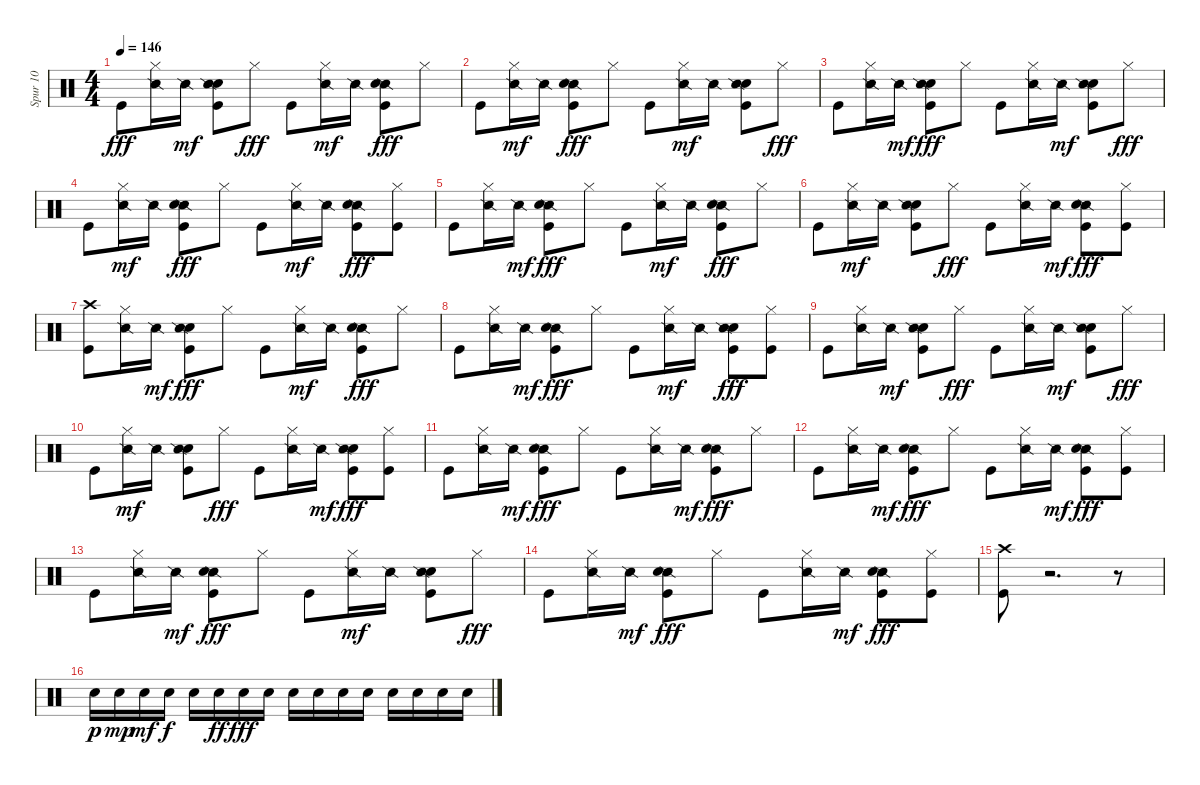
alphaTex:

\track ("Spur 10" "Spur 10") {instrument percussion}
\staff {score}
\articulation defaults
\ts (4 4)
\tempo 146
\clef neutral
\ks c "Kick (hit)".8{dy fff}
("Snare (side stick) 2" "Hi-Hat (closed)").16 "Snare (side stick) 2".16{dy mf} ("Kick (hit)" "Hand Clap (hit)" "Snare (side stick) 2").8 "Hi-Hat (closed)".8{dy fff} "Kick (hit)".8 ("Hi-Hat (closed)" "Snare (side stick) 2").16{dy mf} "Snare (side stick) 2".16 ("Snare (side stick) 2" "Hand Clap (hit)" "Kick (hit)").8{dy fff} "Hi-Hat (closed)".8 |
"Kick (hit)".8 ("Hi-Hat (closed)" "Snare (side stick) 2").16{dy mf} "Snare (side stick) 2".16 ("Kick (hit)" "Snare (side stick) 2" "Hand Clap (hit)").8{dy fff} "Hi-Hat (closed)".8 "Kick (hit)".8 ("Hi-Hat (closed)" "Snare (side stick) 2").16{dy mf} "Snare (side stick) 2".16 ("Kick (hit)" "Hand Clap (hit)" "Snare (side stick) 2").8 "Hi-Hat (closed)".8{dy fff} |
"Kick (hit)".8 ("Snare (side stick) 2" "Hi-Hat (closed)").16 "Snare (side stick) 2".16{dy mf} ("Hand Clap (hit)" "Snare (side stick) 2" "Kick (hit)").8{dy fff} "Hi-Hat (closed)".8 "Kick (hit)".8 ("Snare (side stick) 2" "Hi-Hat (closed)").16 "Snare (side stick) 2".16{dy mf} ("Hand Clap (hit)" "Kick (hit)" "Snare (side stick) 2").8 "Hi-Hat (closed)".8{dy fff} |
"Kick (hit)".8 ("Hi-Hat (closed)" "Snare (side stick) 2").16{dy mf} "Snare (side stick) 2".16 ("Snare (side stick) 2" "Hand Clap (hit)" "Kick (hit)").8{dy fff} "Hi-Hat (closed)".8 "Kick (hit)".8 ("Hi-Hat (closed)" "Snare (side stick) 2").16{dy mf} "Snare (side stick) 2".16 ("Kick (hit)" "Snare (side stick) 2" "Hand Clap (hit)").8{dy fff} ("Kick (hit)" "Hi-Hat (closed)").8 |
"Kick (hit)".8 ("Snare (side stick) 2" "Hi-Hat (closed)").16 "Snare (side stick) 2".16{dy mf} ("Snare (side stick) 2" "Kick (hit)" "Hand Clap (hit)").8{dy fff} "Hi-Hat (closed)".8 "Kick (hit)".8 ("Hi-Hat (closed)" "Snare (side stick) 2").16{dy mf} "Snare (side stick) 2".16 ("Snare (side stick) 2" "Kick (hit)" "Hand Clap (hit)").8{dy fff} "Hi-Hat (closed)".8 |
"Kick (hit)".8 ("Hi-Hat (closed)" "Snare (side stick) 2").16{dy mf} "Snare (side stick) 2".16 ("Hand Clap (hit)" "Kick (hit)" "Snare (side stick) 2").8 "Hi-Hat (closed)".8{dy fff} "Kick (hit)".8 ("Snare (side stick) 2" "Hi-Hat (closed)").16 "Snare (side stick) 2".16{dy mf} ("Snare (side stick) 2" "Kick (hit)" "Hand Clap (hit)").8{dy fff} ("Kick (hit)" "Hi-Hat (closed)").8 |
("Kick (hit)" "Crash high (hit)").8 ("Snare (side stick) 2" "Hi-Hat (closed)").16 "Snare (side stick) 2".16{dy mf} ("Hand Clap (hit)" "Snare (side stick) 2" "Kick (hit)").8{dy fff} "Hi-Hat (closed)".8 "Kick (hit)".8 ("Hi-Hat (closed)" "Snare (side stick) 2").16{dy mf} "Snare (side stick) 2".16 ("Snare (side stick) 2" "Kick (hit)" "Hand Clap (hit)").8{dy fff} "Hi-Hat (closed)".8 |
"Kick (hit)".8 ("Snare (side stick) 2" "Hi-Hat (closed)").16 "Snare (side stick) 2".16{dy mf} ("Kick (hit)" "Snare (side stick) 2" "Hand Clap (hit)").8{dy fff} "Hi-Hat (closed)".8 "Kick (hit)".8 ("Hi-Hat (closed)" "Snare (side stick) 2").16{dy mf} "Snare (side stick) 2".16 ("Hand Clap (hit)" "Snare (side stick) 2" "Kick (hit)").8{dy fff} ("Kick (hit)" "Hi-Hat (closed)").8 |
"Kick (hit)".8 ("Snare (side stick) 2" "Hi-Hat (closed)").16 "Snare (side stick) 2".16{dy mf} ("Hand Clap (hit)" "Kick (hit)" "Snare (side stick) 2").8 "Hi-Hat (closed)".8{dy fff} "Kick (hit)".8 ("Snare (side stick) 2" "Hi-Hat (closed)").16 "Snare (side stick) 2".16{dy mf} ("Hand Clap (hit)" "Kick (hit)" "Snare (side stick) 2").8 "Hi-Hat (closed)".8{dy fff} |
"Kick (hit)".8 ("Hi-Hat (closed)" "Snare (side stick) 2").16{dy mf} "Snare (side stick) 2".16 ("Kick (hit)" "Hand Clap (hit)" "Snare (side stick) 2").8 "Hi-Hat (closed)".8{dy fff} "Kick (hit)".8 ("Snare (side stick) 2" "Hi-Hat (closed)").16 "Snare (side stick) 2".16{dy mf} ("Hand Clap (hit)" "Snare (side stick) 2" "Kick (hit)").8{dy fff} ("Kick (hit)" "Hi-Hat (closed)").8 |
"Kick (hit)".8 ("Snare (side stick) 2" "Hi-Hat (closed)").16 "Snare (side stick) 2".16{dy mf} ("Snare (side stick) 2" "Hand Clap (hit)" "Kick (hit)").8{dy fff} "Hi-Hat (closed)".8 "Kick (hit)".8 ("Snare (side stick) 2" "Hi-Hat (closed)").16 "Snare (side stick) 2".16{dy mf} ("Snare (side stick) 2" "Kick (hit)" "Hand Clap (hit)").8{dy fff} "Hi-Hat (closed)".8 |
"Kick (hit)".8 ("Snare (side stick) 2" "Hi-Hat (closed)").16 "Snare (side stick) 2".16{dy mf} ("Snare (side stick) 2" "Kick (hit)" "Hand Clap (hit)").8{dy fff} "Hi-Hat (closed)".8 "Kick (hit)".8 ("Snare (side stick) 2" "Hi-Hat (closed)").16 "Snare (side stick) 2".16{dy mf} ("Snare (side stick) 2" "Hand Clap (hit)" "Kick (hit)").8{dy fff} ("Hi-Hat (closed)" "Kick (hit)").8 |
"Kick (hit)".8 ("Snare (side stick) 2" "Hi-Hat (closed)").16 "Snare (side stick) 2".16{dy mf} ("Snare (side stick) 2" "Kick (hit)" "Hand Clap (hit)").8{dy fff} "Hi-Hat (closed)".8 "Kick (hit)".8 ("Hi-Hat (closed)" "Snare (side stick) 2").16{dy mf} "Snare (side stick) 2".16 ("Hand Clap (hit)" "Kick (hit)" "Snare (side stick) 2").8 "Hi-Hat (closed)".8{dy fff} |
"Kick (hit)".8 ("Snare (side stick) 2" "Hi-Hat (closed)").16 "Snare (side stick) 2".16{dy mf} ("Snare (side stick) 2" "Kick (hit)" "Hand Clap (hit)").8{dy fff} "Hi-Hat (closed)".8 "Kick (hit)".8 ("Snare (side stick) 2" "Hi-Hat (closed)").16 "Snare (side stick) 2".16{dy mf} ("Snare (side stick) 2" "Kick (hit)" "Hand Clap (hit)").8{dy fff} ("Hi-Hat (closed)" "Kick (hit)").8 |
("Crash high (hit)" "Kick (hit)").8 r.2{d} r.8 |
"Snare (hit) 2".16{dy p} "Snare (hit) 2".16{dy mp} "Snare (hit) 2".16{dy mf} "Snare (hit) 2".16{dy f} "Snare (hit) 2".16 "Snare (hit) 2".16{dy ff} "Snare (hit) 2".16{dy fff} "Snare (hit) 2".16 "Snare (hit) 2".16 "Snare (hit) 2".16 "Snare (hit) 2".16 "Snare (hit) 2".16 "Snare (hit) 2".16 "Snare (hit) 2".16 "Snare (hit) 2".16 "Snare (hit) 2".16
